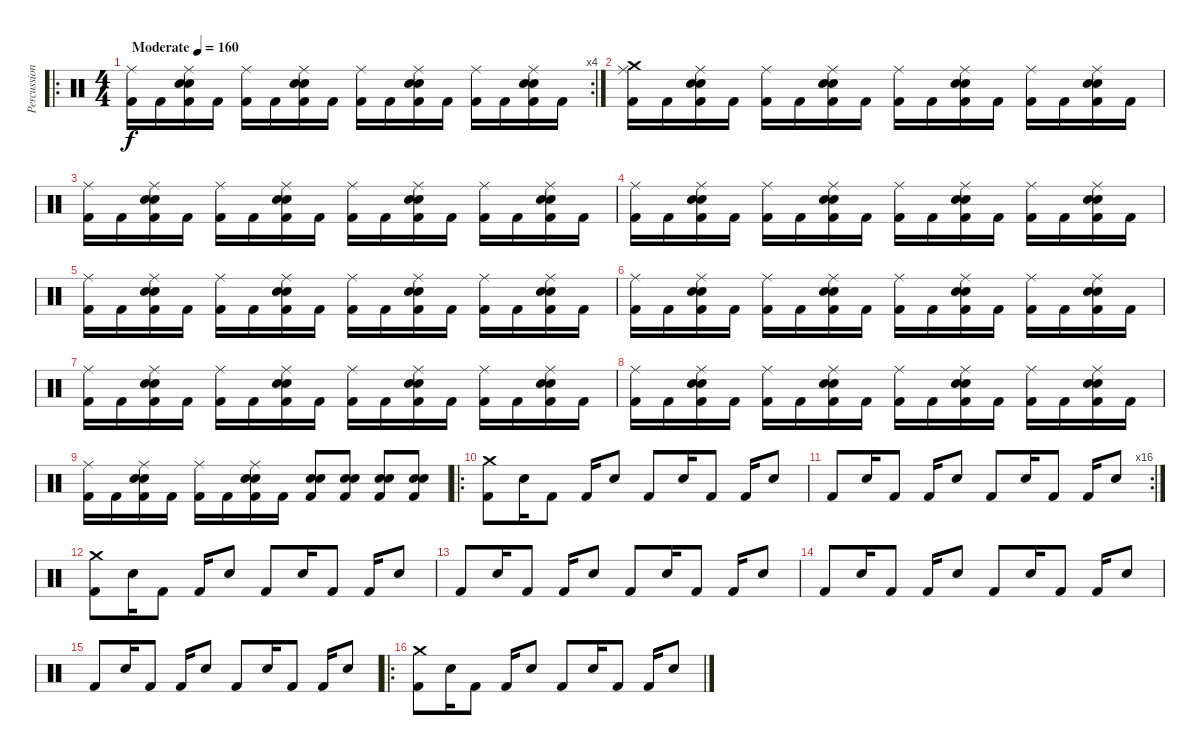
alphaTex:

\track ("Percussion" "Percussion") {instrument percussion}
\staff {score}
\articulation defaults
\ro
\rc 4
\ts (4 4)
\tempo (160 "Moderate")
\clef neutral
\ks c
("Ride (middle)" "Kick (hit) 2").16{dy f} "Kick (hit) 2".16 ("Electric Snare (hit)" "Snare (hit) 2" "Ride (middle)" "Kick (hit) 2").16 "Kick (hit) 2".16 ("Ride (middle)" "Kick (hit) 2").16 "Kick (hit) 2".16 ("Electric Snare (hit)" "Snare (hit) 2" "Ride (middle)" "Kick (hit) 2").16 "Kick (hit) 2".16 ("Ride (middle)" "Kick (hit) 2").16 "Kick (hit) 2".16 ("Electric Snare (hit)" "Snare (hit) 2" "Ride (middle)" "Kick (hit) 2").16 "Kick (hit) 2".16 ("Ride (middle)" "Kick (hit) 2").16 "Kick (hit) 2".16 ("Electric Snare (hit)" "Snare (hit) 2" "Ride (middle)" "Kick (hit) 2").16 "Kick (hit) 2".16 |
("Crash medium (hit)" "Ride (middle)" "Kick (hit) 2").16 "Kick (hit) 2".16 ("Electric Snare (hit)" "Snare (hit) 2" "Ride (middle)" "Kick (hit) 2").16 "Kick (hit) 2".16 ("Ride (middle)" "Kick (hit) 2").16 "Kick (hit) 2".16 ("Electric Snare (hit)" "Snare (hit) 2" "Ride (middle)" "Kick (hit) 2").16 "Kick (hit) 2".16 ("Ride (middle)" "Kick (hit) 2").16 "Kick (hit) 2".16 ("Electric Snare (hit)" "Snare (hit) 2" "Ride (middle)" "Kick (hit) 2").16 "Kick (hit) 2".16 ("Ride (middle)" "Kick (hit) 2").16 "Kick (hit) 2".16 ("Electric Snare (hit)" "Snare (hit) 2" "Ride (middle)" "Kick (hit) 2").16 "Kick (hit) 2".16 |
("Ride (middle)" "Kick (hit) 2").16 "Kick (hit) 2".16 ("Electric Snare (hit)" "Snare (hit) 2" "Ride (middle)" "Kick (hit) 2").16 "Kick (hit) 2".16 ("Ride (middle)" "Kick (hit) 2").16 "Kick (hit) 2".16 ("Electric Snare (hit)" "Snare (hit) 2" "Ride (middle)" "Kick (hit) 2").16 "Kick (hit) 2".16 ("Ride (middle)" "Kick (hit) 2").16 "Kick (hit) 2".16 ("Electric Snare (hit)" "Snare (hit) 2" "Ride (middle)" "Kick (hit) 2").16 "Kick (hit) 2".16 ("Ride (middle)" "Kick (hit) 2").16 "Kick (hit) 2".16 ("Electric Snare (hit)" "Snare (hit) 2" "Ride (middle)" "Kick (hit) 2").16 "Kick (hit) 2".16 |
("Ride (middle)" "Kick (hit) 2").16 "Kick (hit) 2".16 ("Electric Snare (hit)" "Snare (hit) 2" "Ride (middle)" "Kick (hit) 2").16 "Kick (hit) 2".16 ("Ride (middle)" "Kick (hit) 2").16 "Kick (hit) 2".16 ("Electric Snare (hit)" "Snare (hit) 2" "Ride (middle)" "Kick (hit) 2").16 "Kick (hit) 2".16 ("Ride (middle)" "Kick (hit) 2").16 "Kick (hit) 2".16 ("Electric Snare (hit)" "Snare (hit) 2" "Ride (middle)" "Kick (hit) 2").16 "Kick (hit) 2".16 ("Ride (middle)" "Kick (hit) 2").16 "Kick (hit) 2".16 ("Electric Snare (hit)" "Snare (hit) 2" "Ride (middle)" "Kick (hit) 2").16 "Kick (hit) 2".16 |
("Ride (middle)" "Kick (hit) 2").16 "Kick (hit) 2".16 ("Electric Snare (hit)" "Snare (hit) 2" "Ride (middle)" "Kick (hit) 2").16 "Kick (hit) 2".16 ("Ride (middle)" "Kick (hit) 2").16 "Kick (hit) 2".16 ("Electric Snare (hit)" "Snare (hit) 2" "Ride (middle)" "Kick (hit) 2").16 "Kick (hit) 2".16 ("Ride (middle)" "Kick (hit) 2").16 "Kick (hit) 2".16 ("Electric Snare (hit)" "Snare (hit) 2" "Ride (middle)" "Kick (hit) 2").16 "Kick (hit) 2".16 ("Ride (middle)" "Kick (hit) 2").16 "Kick (hit) 2".16 ("Electric Snare (hit)" "Snare (hit) 2" "Ride (middle)" "Kick (hit) 2").16 "Kick (hit) 2".16 |
("Ride (middle)" "Kick (hit) 2").16 "Kick (hit) 2".16 ("Electric Snare (hit)" "Snare (hit) 2" "Ride (middle)" "Kick (hit) 2").16 "Kick (hit) 2".16 ("Ride (middle)" "Kick (hit) 2").16 "Kick (hit) 2".16 ("Electric Snare (hit)" "Snare (hit) 2" "Ride (middle)" "Kick (hit) 2").16 "Kick (hit) 2".16 ("Ride (middle)" "Kick (hit) 2").16 "Kick (hit) 2".16 ("Electric Snare (hit)" "Snare (hit) 2" "Ride (middle)" "Kick (hit) 2").16 "Kick (hit) 2".16 ("Ride (middle)" "Kick (hit) 2").16 "Kick (hit) 2".16 ("Electric Snare (hit)" "Snare (hit) 2" "Ride (middle)" "Kick (hit) 2").16 "Kick (hit) 2".16 |
("Ride (middle)" "Kick (hit) 2").16 "Kick (hit) 2".16 ("Electric Snare (hit)" "Snare (hit) 2" "Ride (middle)" "Kick (hit) 2").16 "Kick (hit) 2".16 ("Ride (middle)" "Kick (hit) 2").16 "Kick (hit) 2".16 ("Electric Snare (hit)" "Snare (hit) 2" "Ride (middle)" "Kick (hit) 2").16 "Kick (hit) 2".16 ("Ride (middle)" "Kick (hit) 2").16 "Kick (hit) 2".16 ("Electric Snare (hit)" "Snare (hit) 2" "Ride (middle)" "Kick (hit) 2").16 "Kick (hit) 2".16 ("Ride (middle)" "Kick (hit) 2").16 "Kick (hit) 2".16 ("Electric Snare (hit)" "Snare (hit) 2" "Ride (middle)" "Kick (hit) 2").16 "Kick (hit) 2".16 |
("Ride (middle)" "Kick (hit) 2").16 "Kick (hit) 2".16 ("Electric Snare (hit)" "Snare (hit) 2" "Ride (middle)" "Kick (hit) 2").16 "Kick (hit) 2".16 ("Ride (middle)" "Kick (hit) 2").16 "Kick (hit) 2".16 ("Electric Snare (hit)" "Snare (hit) 2" "Ride (middle)" "Kick (hit) 2").16 "Kick (hit) 2".16 ("Ride (middle)" "Kick (hit) 2").16 "Kick (hit) 2".16 ("Electric Snare (hit)" "Snare (hit) 2" "Ride (middle)" "Kick (hit) 2").16 "Kick (hit) 2".16 ("Ride (middle)" "Kick (hit) 2").16 "Kick (hit) 2".16 ("Electric Snare (hit)" "Snare (hit) 2" "Ride (middle)" "Kick (hit) 2").16 "Kick (hit) 2".16 |
("Ride (middle)" "Kick (hit) 2").16 "Kick (hit) 2".16 ("Electric Snare (hit)" "Snare (hit) 2" "Ride (middle)" "Kick (hit) 2").16 "Kick (hit) 2".16 ("Ride (middle)" "Kick (hit) 2").16 "Kick (hit) 2".16 ("Electric Snare (hit)" "Snare (hit) 2" "Ride (middle)" "Kick (hit) 2").16 "Kick (hit) 2".16 ("Kick (hit) 2" "Snare (hit) 2" "Electric Snare (hit)").8 ("Kick (hit) 2" "Snare (hit) 2" "Electric Snare (hit)").8 ("Kick (hit) 2" "Snare (hit) 2" "Electric Snare (hit)").8 ("Kick (hit) 2" "Snare (hit) 2" "Electric Snare (hit)").8 |
\ro
("Crash medium (hit)" "Kick (hit) 2").8 "Electric Snare (hit)".16 "Kick (hit) 2".8 "Kick (hit) 2".16 "Electric Snare (hit)".8 "Kick (hit) 2".8 "Electric Snare (hit)".16 "Kick (hit) 2".8 "Kick (hit) 2".16 "Electric Snare (hit)".8 |
\rc 16 "Kick (hit) 2".8 "Electric Snare (hit)".16 "Kick (hit) 2".8 "Kick (hit) 2".16 "Electric Snare (hit)".8 "Kick (hit) 2".8 "Electric Snare (hit)".16 "Kick (hit) 2".8 "Kick (hit) 2".16 "Electric Snare (hit)".8
|
("Crash medium (hit)" "Kick (hit) 2").8 "Electric Snare (hit)".16 "Kick (hit) 2".8 "Kick (hit) 2".16 "Electric Snare (hit)".8 "Kick (hit) 2".8 "Electric Snare (hit)".16 "Kick (hit) 2".8 "Kick (hit) 2".16 "Electric Snare (hit)".8 |
"Kick (hit) 2".8 "Electric Snare (hit)".16 "Kick (hit) 2".8 "Kick (hit) 2".16 "Electric Snare (hit)".8 "Kick (hit) 2".8 "Electric Snare (hit)".16 "Kick (hit) 2".8 "Kick (hit) 2".16 "Electric Snare (hit)".8 |
"Kick (hit) 2".8 "Electric Snare (hit)".16 "Kick (hit) 2".8 "Kick (hit) 2".16 "Electric Snare (hit)".8 "Kick (hit) 2".8 "Electric Snare (hit)".16 "Kick (hit) 2".8 "Kick (hit) 2".16 "Electric Snare (hit)".8 |
"Kick (hit) 2".8 "Electric Snare (hit)".16 "Kick (hit) 2".8 "Kick (hit) 2".16 "Electric Snare (hit)".8 "Kick (hit) 2".8 "Electric Snare (hit)".16 "Kick (hit) 2".8 "Kick (hit) 2".16 "Electric Snare (hit)".8 |
\ro
("Crash medium (hit)" "Kick (hit) 2").8 "Electric Snare (hit)".16 "Kick (hit) 2".8 "Kick (hit) 2".16 "Electric Snare (hit)".8 "Kick (hit) 2".8 "Electric Snare (hit)".16 "Kick (hit) 2".8 "Kick (hit) 2".16 "Electric Snare (hit)".8
